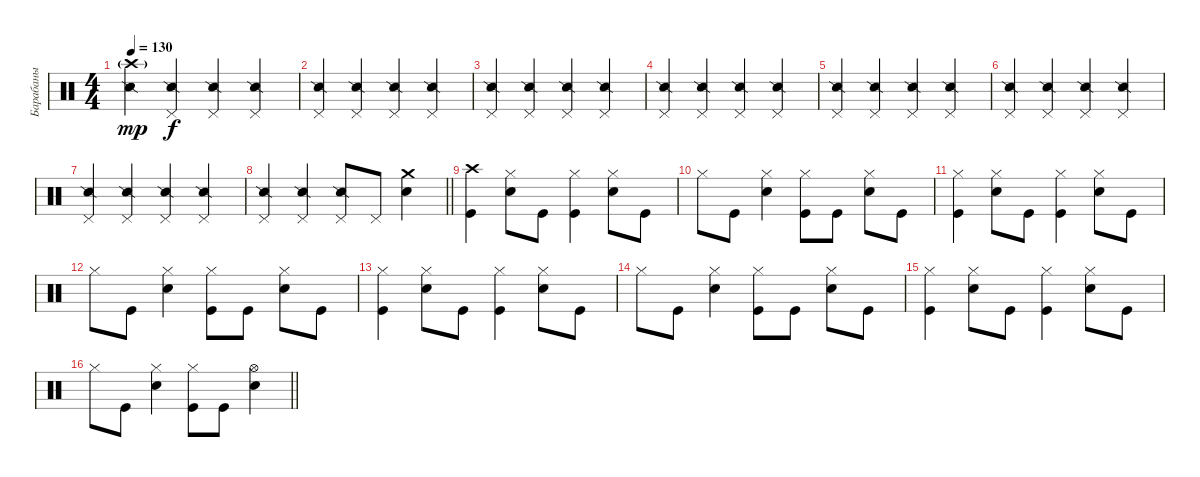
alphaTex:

\track ("Барабаны" "Барабаны") {instrument percussion}
\staff {score}
\articulation defaults
\ts (4 4)
\tempo 130
\clef neutral
\ks c
("Crash high (hit)"{g} "Snare (side stick) 2").4{dy mp} ("Pedal Hi-Hat (hit)" "Snare (side stick) 2").4{dy f} ("Pedal Hi-Hat (hit)" "Snare (side stick) 2").4 ("Pedal Hi-Hat (hit)" "Snare (side stick) 2").4 |
("Pedal Hi-Hat (hit)" "Snare (side stick) 2").4 ("Pedal Hi-Hat (hit)" "Snare (side stick) 2").4 ("Pedal Hi-Hat (hit)" "Snare (side stick) 2").4 ("Pedal Hi-Hat (hit)" "Snare (side stick) 2").4 |
("Pedal Hi-Hat (hit)" "Snare (side stick) 2").4 ("Pedal Hi-Hat (hit)" "Snare (side stick) 2").4 ("Pedal Hi-Hat (hit)" "Snare (side stick) 2").4 ("Pedal Hi-Hat (hit)" "Snare (side stick) 2").4 |
("Pedal Hi-Hat (hit)" "Snare (side stick) 2").4 ("Pedal Hi-Hat (hit)" "Snare (side stick) 2").4 ("Pedal Hi-Hat (hit)" "Snare (side stick) 2").4 ("Pedal Hi-Hat (hit)" "Snare (side stick) 2").4 |
("Pedal Hi-Hat (hit)" "Snare (side stick) 2").4 ("Pedal Hi-Hat (hit)" "Snare (side stick) 2").4 ("Pedal Hi-Hat (hit)" "Snare (side stick) 2").4 ("Pedal Hi-Hat (hit)" "Snare (side stick) 2").4 |
("Pedal Hi-Hat (hit)" "Snare (side stick) 2").4 ("Pedal Hi-Hat (hit)" "Snare (side stick) 2").4 ("Pedal Hi-Hat (hit)" "Snare (side stick) 2").4 ("Pedal Hi-Hat (hit)" "Snare (side stick) 2").4 |
("Pedal Hi-Hat (hit)" "Snare (side stick) 2").4 ("Pedal Hi-Hat (hit)" "Snare (side stick) 2").4 ("Pedal Hi-Hat (hit)" "Snare (side stick) 2").4 ("Pedal Hi-Hat (hit)" "Snare (side stick) 2").4 |
\barLineRight lightlight
("Pedal Hi-Hat (hit)" "Snare (side stick) 2").4 ("Pedal Hi-Hat (hit)" "Snare (side stick) 2").4 ("Pedal Hi-Hat (hit)" "Snare (side stick) 2").8 "Pedal Hi-Hat (hit)".8 ("Crash medium (hit)" "Electric Snare (hit)").4 |
("Crash high (hit)" "Kick (hit)").4 ("Hi-Hat (closed)" "Electric Snare (hit)").8 "Kick (hit)".8 ("Hi-Hat (closed)" "Kick (hit)").4 ("Hi-Hat (closed)" "Electric Snare (hit)").8 "Kick (hit)".8 |
"Hi-Hat (closed)".8 "Kick (hit)".8 ("Hi-Hat (closed)" "Electric Snare (hit)").4 ("Hi-Hat (closed)" "Kick (hit)").8 "Kick (hit)".8 ("Hi-Hat (closed)" "Electric Snare (hit)").8 "Kick (hit)".8 |
("Hi-Hat (closed)" "Kick (hit)").4 ("Hi-Hat (closed)" "Electric Snare (hit)").8 "Kick (hit)".8 ("Hi-Hat (closed)" "Kick (hit)").4 ("Hi-Hat (closed)" "Electric Snare (hit)").8 "Kick (hit)".8 |
"Hi-Hat (closed)".8 "Kick (hit)".8 ("Hi-Hat (closed)" "Electric Snare (hit)").4 ("Hi-Hat (closed)" "Kick (hit)").8 "Kick (hit)".8 ("Hi-Hat (closed)" "Electric Snare (hit)").8 "Kick (hit)".8 |
("Hi-Hat (closed)" "Kick (hit)").4 ("Hi-Hat (closed)" "Electric Snare (hit)").8 "Kick (hit)".8 ("Hi-Hat (closed)" "Kick (hit)").4 ("Hi-Hat (closed)" "Electric Snare (hit)").8 "Kick (hit)".8 |
"Hi-Hat (closed)".8 "Kick (hit)".8 ("Hi-Hat (closed)" "Electric Snare (hit)").4 ("Hi-Hat (closed)" "Kick (hit)").8 "Kick (hit)".8 ("Hi-Hat (closed)" "Electric Snare (hit)").8 "Kick (hit)".8 |
("Hi-Hat (closed)" "Kick (hit)").4 ("Hi-Hat (closed)" "Electric Snare (hit)").8 "Kick (hit)".8 ("Hi-Hat (closed)" "Kick (hit)").4 ("Hi-Hat (closed)" "Electric Snare (hit)").8 "Kick (hit)".8 |
\barLineRight lightlight "Hi-Hat (closed)".8 "Kick (hit)".8
("Hi-Hat (closed)" "Electric Snare (hit)").4 ("Hi-Hat (closed)" "Kick (hit)").8 "Kick (hit)".8 ("Hi-Hat (open)" "Electric Snare (hit)").4
